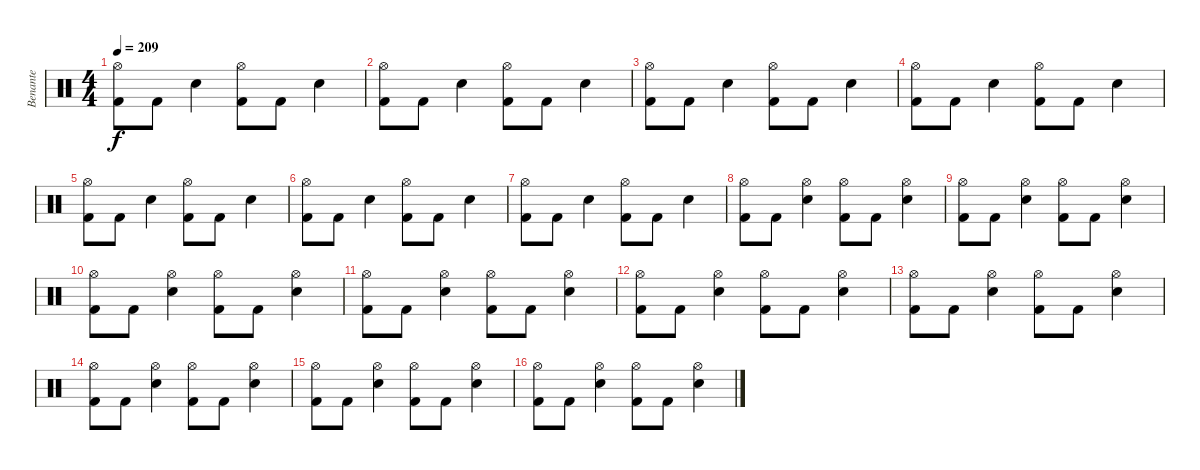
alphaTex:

\track ("Benante" "Benante") {solo instrument percussion}
\staff {score}
\articulation defaults
\ts (4 4)
\tempo 209
\clef neutral
\ks c
("Kick (hit) 2" "Hi-Hat (open)").8{dy f} "Kick (hit) 2".8 "Electric Snare (hit)".4 ("Kick (hit) 2" "Hi-Hat (open)").8 "Kick (hit) 2".8 "Electric Snare (hit)".4 |
("Kick (hit) 2" "Hi-Hat (open)").8 "Kick (hit) 2".8 "Electric Snare (hit)".4 ("Kick (hit) 2" "Hi-Hat (open)").8 "Kick (hit) 2".8 "Electric Snare (hit)".4 |
("Kick (hit) 2" "Hi-Hat (open)").8 "Kick (hit) 2".8 "Electric Snare (hit)".4 ("Kick (hit) 2" "Hi-Hat (open)").8 "Kick (hit) 2".8 "Electric Snare (hit)".4 |
("Kick (hit) 2" "Hi-Hat (open)").8 "Kick (hit) 2".8 "Electric Snare (hit)".4 ("Kick (hit) 2" "Hi-Hat (open)").8 "Kick (hit) 2".8 "Electric Snare (hit)".4 |
("Kick (hit) 2" "Hi-Hat (open)").8 "Kick (hit) 2".8 "Electric Snare (hit)".4 ("Kick (hit) 2" "Hi-Hat (open)").8 "Kick (hit) 2".8 "Electric Snare (hit)".4 |
("Kick (hit) 2" "Hi-Hat (open)").8 "Kick (hit) 2".8 "Electric Snare (hit)".4 ("Kick (hit) 2" "Hi-Hat (open)").8 "Kick (hit) 2".8 "Electric Snare (hit)".4 |
("Kick (hit) 2" "Hi-Hat (open)").8 "Kick (hit) 2".8 "Electric Snare (hit)".4 ("Kick (hit) 2" "Hi-Hat (open)").8 "Kick (hit) 2".8 "Electric Snare (hit)".4 |
("Kick (hit) 2" "Hi-Hat (open)").8 "Kick (hit) 2".8 ("Electric Snare (hit)" "Hi-Hat (open)").4 ("Kick (hit) 2" "Hi-Hat (open)").8 "Kick (hit) 2".8 ("Electric Snare (hit)" "Hi-Hat (open)").4 |
("Kick (hit) 2" "Hi-Hat (open)").8 "Kick (hit) 2".8 ("Electric Snare (hit)" "Hi-Hat (open)").4 ("Kick (hit) 2" "Hi-Hat (open)").8 "Kick (hit) 2".8 ("Electric Snare (hit)" "Hi-Hat (open)").4 |
("Kick (hit) 2" "Hi-Hat (open)").8 "Kick (hit) 2".8 ("Electric Snare (hit)" "Hi-Hat (open)").4 ("Kick (hit) 2" "Hi-Hat (open)").8 "Kick (hit) 2".8 ("Electric Snare (hit)" "Hi-Hat (open)").4 |
("Kick (hit) 2" "Hi-Hat (open)").8 "Kick (hit) 2".8 ("Electric Snare (hit)" "Hi-Hat (open)").4 ("Kick (hit) 2" "Hi-Hat (open)").8 "Kick (hit) 2".8 ("Electric Snare (hit)" "Hi-Hat (open)").4 |
("Kick (hit) 2" "Hi-Hat (open)").8 "Kick (hit) 2".8 ("Electric Snare (hit)" "Hi-Hat (open)").4 ("Kick (hit) 2" "Hi-Hat (open)").8 "Kick (hit) 2".8 ("Electric Snare (hit)" "Hi-Hat (open)").4 |
("Kick (hit) 2" "Hi-Hat (open)").8 "Kick (hit) 2".8 ("Electric Snare (hit)" "Hi-Hat (open)").4 ("Kick (hit) 2" "Hi-Hat (open)").8 "Kick (hit) 2".8 ("Electric Snare (hit)" "Hi-Hat (open)").4 |
("Kick (hit) 2" "Hi-Hat (open)").8 "Kick (hit) 2".8 ("Electric Snare (hit)" "Hi-Hat (open)").4 ("Kick (hit) 2" "Hi-Hat (open)").8 "Kick (hit) 2".8 ("Electric Snare (hit)" "Hi-Hat (open)").4 |
("Kick (hit) 2" "Hi-Hat (open)").8 "Kick (hit) 2".8 ("Electric Snare (hit)" "Hi-Hat (open)").4 ("Kick (hit) 2" "Hi-Hat (open)").8 "Kick (hit) 2".8 ("Electric Snare (hit)" "Hi-Hat (open)").4 |
("Kick (hit) 2" "Hi-Hat (open)").8 "Kick (hit) 2".8 ("Electric Snare (hit)" "Hi-Hat (open)").4 ("Kick (hit) 2" "Hi-Hat (open)").8 "Kick (hit) 2".8 ("Electric Snare (hit)" "Hi-Hat (open)").4
